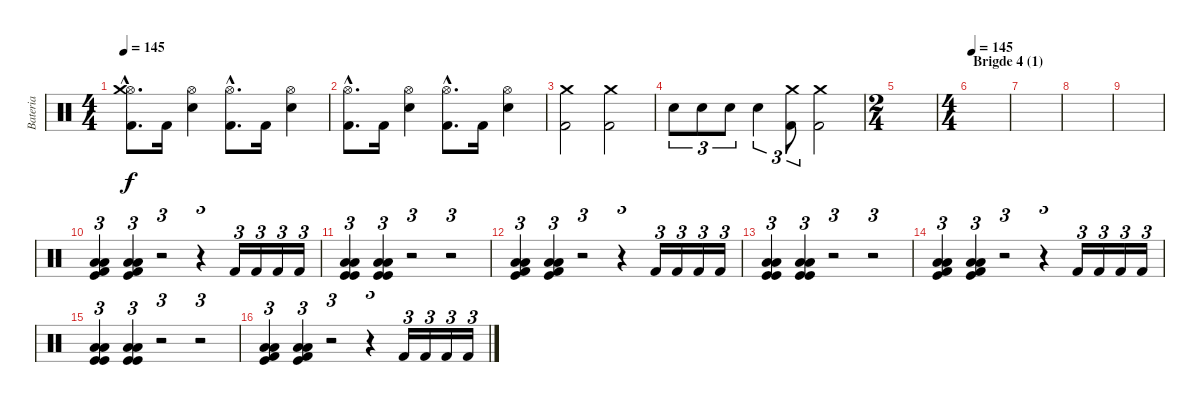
\track ("Bateria" "Bateria") {instrument percussion}
\staff {score}
\articulation defaults
\ts (4 4)
\tempo 145
\clef neutral
\ks c
("Hi-Hat (open)"{hac} "Crash medium (hit)"{hac} "Kick (hit) 2"{hac}).8{d dy f} "Kick (hit) 2".16 ("Hi-Hat (open)" "Snare (hit) 2").4 ("Hi-Hat (open)"{hac} "Kick (hit) 2"{hac}).8{d} "Kick (hit) 2".16 ("Hi-Hat (open)" "Snare (hit) 2").4 |
("Hi-Hat (open)"{hac} "Kick (hit) 2"{hac}).8{d} "Kick (hit) 2".16 ("Hi-Hat (open)" "Snare (hit) 2").4 ("Hi-Hat (open)"{hac} "Kick (hit) 2"{hac}).8{d} "Kick (hit) 2".16 ("Hi-Hat (open)" "Snare (hit) 2").4 |
("Crash medium (hit)" "Kick (hit) 2").2 ("Crash medium (hit)" "Kick (hit) 2").2 |
"Snare (hit) 2".8{tu (3 2)} "Snare (hit) 2".8{tu (3 2)} "Snare (hit) 2".8{tu (3 2)} "Snare (hit) 2".4{tu (3 2)} ("Kick (hit) 2" "Crash medium (hit)").8{tu (3 2)} ("Kick (hit) 2" "Crash medium (hit)").2 |
\ts (2 4)
|
\ts (4 4)
\section ("" "Brigde 4 (1)")
\tempo 145
|
|
|
|
("Kick (hit) 2" "Low Tom (hit)" "Kick (hit)" "Low Floor Tom (hit)").4{tu (3 2)} ("Kick (hit) 2" "Low Tom (hit)" "Kick (hit)" "Low Floor Tom (hit)").4{tu (3 2)} r.2{tu (3 2)} r.4{tu (3 2)} "Kick (hit) 2".16{tu (3 2)} "Kick (hit) 2".16{tu (3 2)} "Kick (hit) 2".16{tu (3 2)} "Kick (hit) 2".16{tu (3 2)} |
("Kick (hit)" "Low Tom (hit)" "Kick (hit)" "Low Floor Tom (hit)").4{tu (3 2)} ("Kick (hit)" "Low Tom (hit)" "Kick (hit)" "Low Floor Tom (hit)").4{tu (3 2)} r.2{tu (3 2)} r.2{tu (3 2)} |
("Kick (hit) 2" "Low Tom (hit)" "Kick (hit)" "Low Floor Tom (hit)").4{tu (3 2)} ("Kick (hit) 2" "Low Tom (hit)" "Kick (hit)" "Low Floor Tom (hit)").4{tu (3 2)} r.2{tu (3 2)} r.4{tu (3 2)} "Kick (hit) 2".16{tu (3 2)} "Kick (hit) 2".16{tu (3 2)} "Kick (hit) 2".16{tu (3 2)} "Kick (hit) 2".16{tu (3 2)} |
("Kick (hit)" "Low Tom (hit)" "Kick (hit)" "Low Floor Tom (hit)").4{tu (3 2)} ("Kick (hit)" "Low Tom (hit)" "Kick (hit)" "Low Floor Tom (hit)").4{tu (3 2)} r.2{tu (3 2)} r.2{tu (3 2)} |
("Kick (hit) 2" "Low Tom (hit)" "Kick (hit)" "Low Floor Tom (hit)").4{tu (3 2)} ("Kick (hit) 2" "Low Tom (hit)" "Kick (hit)" "Low Floor Tom (hit)").4{tu (3 2)} r.2{tu (3 2)} r.4{tu (3 2)} "Kick (hit) 2".16{tu (3 2)} "Kick (hit) 2".16{tu (3 2)} "Kick (hit) 2".16{tu (3 2)} "Kick (hit) 2".16{tu (3 2)} |
("Kick (hit)" "Low Tom (hit)" "Kick (hit)" "Low Floor Tom (hit)").4{tu (3 2)} ("Kick (hit)" "Low Tom (hit)" "Kick (hit)" "Low Floor Tom (hit)").4{tu (3 2)} r.2{tu (3 2)} r.2{tu (3 2)} |
("Kick (hit) 2" "Low Tom (hit)" "Kick (hit)" "Low Floor Tom (hit)").4{tu (3 2)} ("Kick (hit) 2" "Low Tom (hit)" "Kick (hit)" "Low Floor Tom (hit)").4{tu (3 2)} r.2{tu (3 2)} r.4{tu (3 2)} "Kick (hit) 2".16{tu (3 2)} "Kick (hit) 2".16{tu (3 2)} "Kick (hit) 2".16{tu (3 2)} "Kick (hit) 2".16{tu (3 2)}
